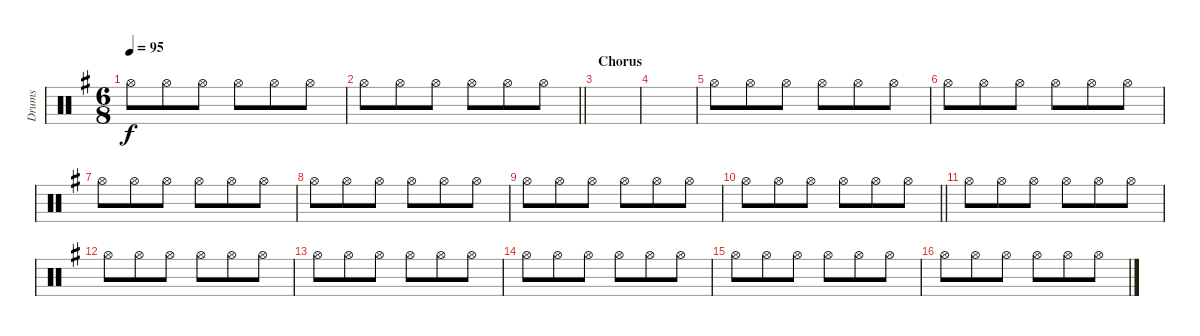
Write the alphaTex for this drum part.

\track ("Drums" "Drums") {instrument percussion}
\staff {score}
\articulation defaults
\ts (6 8)
\tempo 95
\clef neutral
\ks g "Hi-Hat (open)".8{dy f} "Hi-Hat (open)".8 "Hi-Hat (open)".8 "Hi-Hat (open)".8 "Hi-Hat (open)".8 "Hi-Hat (open)".8
|
\barLineRight lightlight "Hi-Hat (open)".8 "Hi-Hat (open)".8 "Hi-Hat (open)".8 "Hi-Hat (open)".8 "Hi-Hat (open)".8 "Hi-Hat (open)".8
|
\section ("" "Chorus")
|
|
"Hi-Hat (open)".8 "Hi-Hat (open)".8 "Hi-Hat (open)".8 "Hi-Hat (open)".8 "Hi-Hat (open)".8 "Hi-Hat (open)".8 |
"Hi-Hat (open)".8 "Hi-Hat (open)".8 "Hi-Hat (open)".8 "Hi-Hat (open)".8 "Hi-Hat (open)".8 "Hi-Hat (open)".8 |
"Hi-Hat (open)".8 "Hi-Hat (open)".8 "Hi-Hat (open)".8 "Hi-Hat (open)".8 "Hi-Hat (open)".8 "Hi-Hat (open)".8 |
"Hi-Hat (open)".8 "Hi-Hat (open)".8 "Hi-Hat (open)".8 "Hi-Hat (open)".8 "Hi-Hat (open)".8 "Hi-Hat (open)".8 |
"Hi-Hat (open)".8 "Hi-Hat (open)".8 "Hi-Hat (open)".8 "Hi-Hat (open)".8 "Hi-Hat (open)".8 "Hi-Hat (open)".8 |
\barLineRight lightlight "Hi-Hat (open)".8 "Hi-Hat (open)".8 "Hi-Hat (open)".8 "Hi-Hat (open)".8 "Hi-Hat (open)".8 "Hi-Hat (open)".8
|
"Hi-Hat (open)".8 "Hi-Hat (open)".8 "Hi-Hat (open)".8 "Hi-Hat (open)".8 "Hi-Hat (open)".8 "Hi-Hat (open)".8 |
"Hi-Hat (open)".8 "Hi-Hat (open)".8 "Hi-Hat (open)".8 "Hi-Hat (open)".8 "Hi-Hat (open)".8 "Hi-Hat (open)".8 |
"Hi-Hat (open)".8 "Hi-Hat (open)".8 "Hi-Hat (open)".8 "Hi-Hat (open)".8 "Hi-Hat (open)".8 "Hi-Hat (open)".8 |
"Hi-Hat (open)".8 "Hi-Hat (open)".8 "Hi-Hat (open)".8 "Hi-Hat (open)".8 "Hi-Hat (open)".8 "Hi-Hat (open)".8 |
"Hi-Hat (open)".8 "Hi-Hat (open)".8 "Hi-Hat (open)".8 "Hi-Hat (open)".8 "Hi-Hat (open)".8 "Hi-Hat (open)".8 |
"Hi-Hat (open)".8 "Hi-Hat (open)".8 "Hi-Hat (open)".8 "Hi-Hat (open)".8 "Hi-Hat (open)".8 "Hi-Hat (open)".8
